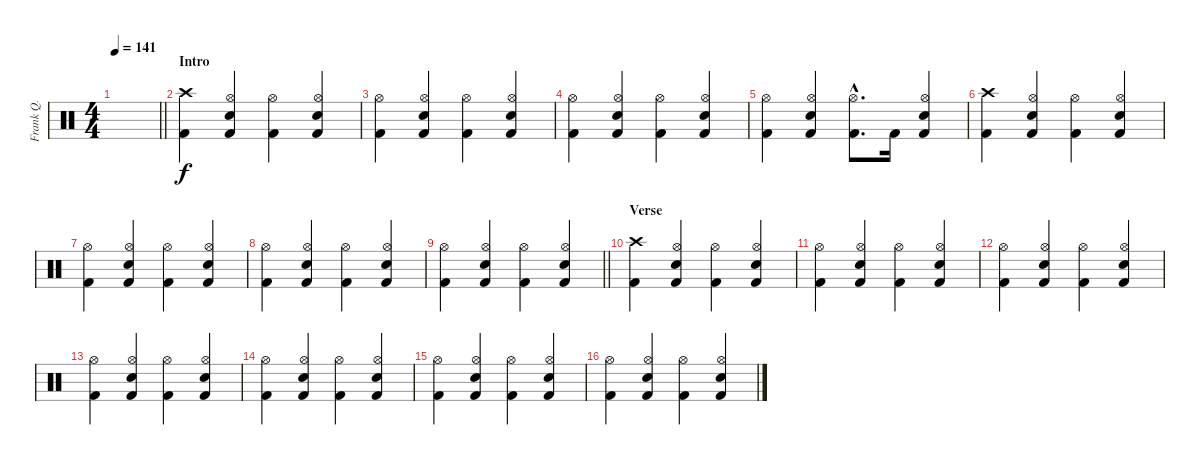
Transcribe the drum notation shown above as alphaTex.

\track ("Frank Q." "Frank Q.") {instrument percussion}
\staff {score}
\articulation defaults
\ts (4 4)
\tempo 141
\clef neutral
\barLineRight lightlight
\ks c
|
\section ("" "Intro")
("Crash high (hit)" "Kick (hit) 2").4 ("Hi-Hat (open)" "Electric Snare (hit)" "Kick (hit) 2").4 ("Hi-Hat (open)" "Kick (hit) 2").4 ("Hi-Hat (open)" "Electric Snare (hit)" "Kick (hit) 2").4 |
("Hi-Hat (open)" "Kick (hit) 2").4 ("Hi-Hat (open)" "Electric Snare (hit)" "Kick (hit) 2").4 ("Hi-Hat (open)" "Kick (hit) 2").4 ("Hi-Hat (open)" "Electric Snare (hit)" "Kick (hit) 2").4 |
("Hi-Hat (open)" "Kick (hit) 2").4 ("Hi-Hat (open)" "Electric Snare (hit)" "Kick (hit) 2").4 ("Hi-Hat (open)" "Kick (hit) 2").4 ("Hi-Hat (open)" "Electric Snare (hit)" "Kick (hit) 2").4 |
("Hi-Hat (open)" "Kick (hit) 2").4 ("Hi-Hat (open)" "Electric Snare (hit)" "Kick (hit) 2").4 ("Hi-Hat (open)"{hac} "Kick (hit) 2"{hac}).8{d} "Kick (hit) 2".16 ("Hi-Hat (open)" "Electric Snare (hit)" "Kick (hit) 2").4 |
("Crash high (hit)" "Kick (hit) 2").4 ("Hi-Hat (open)" "Electric Snare (hit)" "Kick (hit) 2").4 ("Hi-Hat (open)" "Kick (hit) 2").4 ("Hi-Hat (open)" "Electric Snare (hit)" "Kick (hit) 2").4 |
("Hi-Hat (open)" "Kick (hit) 2").4 ("Hi-Hat (open)" "Electric Snare (hit)" "Kick (hit) 2").4 ("Hi-Hat (open)" "Kick (hit) 2").4 ("Hi-Hat (open)" "Electric Snare (hit)" "Kick (hit) 2").4 |
("Hi-Hat (open)" "Kick (hit) 2").4 ("Hi-Hat (open)" "Electric Snare (hit)" "Kick (hit) 2").4 ("Hi-Hat (open)" "Kick (hit) 2").4 ("Hi-Hat (open)" "Electric Snare (hit)" "Kick (hit) 2").4 |
\barLineRight lightlight
("Hi-Hat (open)" "Kick (hit) 2").4 ("Hi-Hat (open)" "Electric Snare (hit)" "Kick (hit) 2").4 ("Hi-Hat (open)" "Kick (hit) 2").4 ("Hi-Hat (open)" "Electric Snare (hit)" "Kick (hit) 2").4 |
\section ("" "Verse")
("Crash high (hit)" "Kick (hit) 2").4 ("Hi-Hat (open)" "Electric Snare (hit)" "Kick (hit) 2").4 ("Hi-Hat (open)" "Kick (hit) 2").4 ("Hi-Hat (open)" "Electric Snare (hit)" "Kick (hit) 2").4 |
("Hi-Hat (open)" "Kick (hit) 2").4 ("Hi-Hat (open)" "Electric Snare (hit)" "Kick (hit) 2").4 ("Hi-Hat (open)" "Kick (hit) 2").4 ("Hi-Hat (open)" "Electric Snare (hit)" "Kick (hit) 2").4 |
("Hi-Hat (open)" "Kick (hit) 2").4 ("Hi-Hat (open)" "Electric Snare (hit)" "Kick (hit) 2").4 ("Hi-Hat (open)" "Kick (hit) 2").4 ("Hi-Hat (open)" "Electric Snare (hit)" "Kick (hit) 2").4 |
("Hi-Hat (open)" "Kick (hit) 2").4 ("Hi-Hat (open)" "Electric Snare (hit)" "Kick (hit) 2").4 ("Hi-Hat (open)" "Kick (hit) 2").4 ("Hi-Hat (open)" "Electric Snare (hit)" "Kick (hit) 2").4 |
("Hi-Hat (open)" "Kick (hit) 2").4 ("Hi-Hat (open)" "Electric Snare (hit)" "Kick (hit) 2").4 ("Hi-Hat (open)" "Kick (hit) 2").4 ("Hi-Hat (open)" "Electric Snare (hit)" "Kick (hit) 2").4 |
("Hi-Hat (open)" "Kick (hit) 2").4 ("Hi-Hat (open)" "Electric Snare (hit)" "Kick (hit) 2").4 ("Hi-Hat (open)" "Kick (hit) 2").4 ("Hi-Hat (open)" "Electric Snare (hit)" "Kick (hit) 2").4 |
("Hi-Hat (open)" "Kick (hit) 2").4 ("Hi-Hat (open)" "Electric Snare (hit)" "Kick (hit) 2").4 ("Hi-Hat (open)" "Kick (hit) 2").4 ("Hi-Hat (open)" "Electric Snare (hit)" "Kick (hit) 2").4
